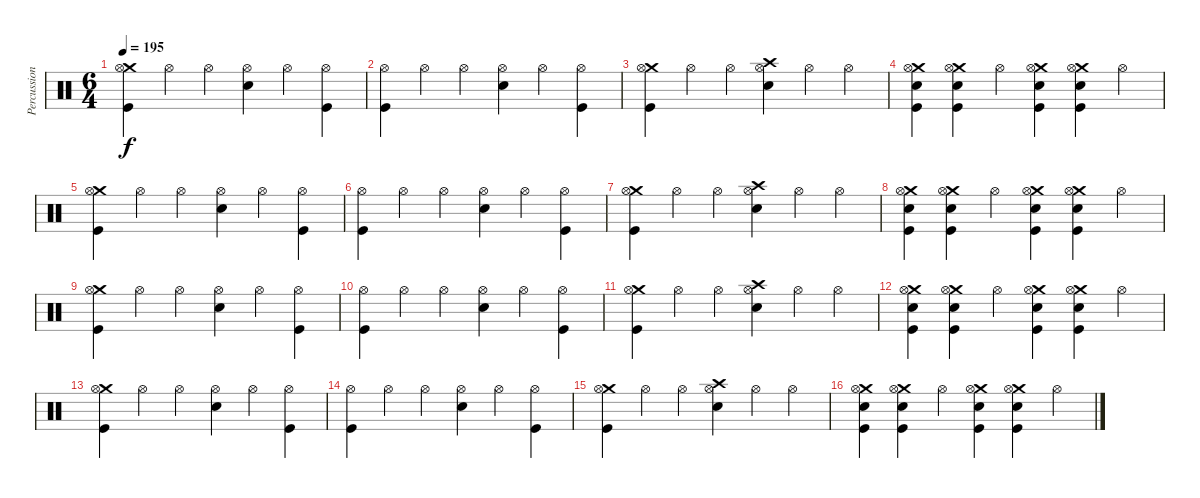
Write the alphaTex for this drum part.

\track ("Percussion" "Percussion") {instrument percussion}
\staff {score}
\articulation defaults
\ts (6 4)
\tempo 195
\clef neutral
\ks c
("Crash medium (hit)" "Hi-Hat (open)" "Kick (hit)").4{dy f} "Hi-Hat (open)".4 "Hi-Hat (open)".4 ("Hi-Hat (open)" "Electric Snare (hit)").4 "Hi-Hat (open)".4 ("Hi-Hat (open)" "Kick (hit)").4 |
("Hi-Hat (open)" "Kick (hit)").4 "Hi-Hat (open)".4 "Hi-Hat (open)".4 ("Hi-Hat (open)" "Electric Snare (hit)").4 "Hi-Hat (open)".4 ("Hi-Hat (open)" "Kick (hit)").4 |
("Crash medium (hit)" "Hi-Hat (open)" "Kick (hit)").4 "Hi-Hat (open)".4 "Hi-Hat (open)".4 ("Crash high (hit)" "Hi-Hat (open)" "Electric Snare (hit)").4 "Hi-Hat (open)".4 "Hi-Hat (open)".4 |
("Crash medium (hit)" "Hi-Hat (open)" "Electric Snare (hit)" "Kick (hit)").4 ("Crash medium (hit)" "Hi-Hat (open)" "Electric Snare (hit)" "Kick (hit)").4 "Hi-Hat (open)".4 ("Crash medium (hit)" "Hi-Hat (open)" "Electric Snare (hit)" "Kick (hit)").4 ("Crash medium (hit)" "Hi-Hat (open)" "Electric Snare (hit)" "Kick (hit)").4 "Hi-Hat (open)".4 |
("Crash medium (hit)" "Hi-Hat (open)" "Kick (hit)").4 "Hi-Hat (open)".4 "Hi-Hat (open)".4 ("Hi-Hat (open)" "Electric Snare (hit)").4 "Hi-Hat (open)".4 ("Hi-Hat (open)" "Kick (hit)").4 |
("Hi-Hat (open)" "Kick (hit)").4 "Hi-Hat (open)".4 "Hi-Hat (open)".4 ("Hi-Hat (open)" "Electric Snare (hit)").4 "Hi-Hat (open)".4 ("Hi-Hat (open)" "Kick (hit)").4 |
("Crash medium (hit)" "Hi-Hat (open)" "Kick (hit)").4 "Hi-Hat (open)".4 "Hi-Hat (open)".4 ("Crash high (hit)" "Hi-Hat (open)" "Electric Snare (hit)").4 "Hi-Hat (open)".4 "Hi-Hat (open)".4 |
("Crash medium (hit)" "Hi-Hat (open)" "Electric Snare (hit)" "Kick (hit)").4 ("Crash medium (hit)" "Hi-Hat (open)" "Electric Snare (hit)" "Kick (hit)").4 "Hi-Hat (open)".4 ("Crash medium (hit)" "Hi-Hat (open)" "Electric Snare (hit)" "Kick (hit)").4 ("Crash medium (hit)" "Hi-Hat (open)" "Electric Snare (hit)" "Kick (hit)").4 "Hi-Hat (open)".4 |
("Crash medium (hit)" "Hi-Hat (open)" "Kick (hit)").4 "Hi-Hat (open)".4 "Hi-Hat (open)".4 ("Hi-Hat (open)" "Electric Snare (hit)").4 "Hi-Hat (open)".4 ("Hi-Hat (open)" "Kick (hit)").4 |
("Hi-Hat (open)" "Kick (hit)").4 "Hi-Hat (open)".4 "Hi-Hat (open)".4 ("Hi-Hat (open)" "Electric Snare (hit)").4 "Hi-Hat (open)".4 ("Hi-Hat (open)" "Kick (hit)").4 |
("Crash medium (hit)" "Hi-Hat (open)" "Kick (hit)").4 "Hi-Hat (open)".4 "Hi-Hat (open)".4 ("Crash high (hit)" "Hi-Hat (open)" "Electric Snare (hit)").4 "Hi-Hat (open)".4 "Hi-Hat (open)".4 |
("Crash medium (hit)" "Hi-Hat (open)" "Electric Snare (hit)" "Kick (hit)").4 ("Crash medium (hit)" "Hi-Hat (open)" "Electric Snare (hit)" "Kick (hit)").4 "Hi-Hat (open)".4 ("Crash medium (hit)" "Hi-Hat (open)" "Electric Snare (hit)" "Kick (hit)").4 ("Crash medium (hit)" "Hi-Hat (open)" "Electric Snare (hit)" "Kick (hit)").4 "Hi-Hat (open)".4 |
("Crash medium (hit)" "Hi-Hat (open)" "Kick (hit)").4 "Hi-Hat (open)".4 "Hi-Hat (open)".4 ("Hi-Hat (open)" "Electric Snare (hit)").4 "Hi-Hat (open)".4 ("Hi-Hat (open)" "Kick (hit)").4 |
("Hi-Hat (open)" "Kick (hit)").4 "Hi-Hat (open)".4 "Hi-Hat (open)".4 ("Hi-Hat (open)" "Electric Snare (hit)").4 "Hi-Hat (open)".4 ("Hi-Hat (open)" "Kick (hit)").4 |
("Crash medium (hit)" "Hi-Hat (open)" "Kick (hit)").4 "Hi-Hat (open)".4 "Hi-Hat (open)".4 ("Crash high (hit)" "Hi-Hat (open)" "Electric Snare (hit)").4 "Hi-Hat (open)".4 "Hi-Hat (open)".4 |
("Crash medium (hit)" "Hi-Hat (open)" "Electric Snare (hit)" "Kick (hit)").4 ("Crash medium (hit)" "Hi-Hat (open)" "Electric Snare (hit)" "Kick (hit)").4 "Hi-Hat (open)".4 ("Crash medium (hit)" "Hi-Hat (open)" "Electric Snare (hit)" "Kick (hit)").4 ("Crash medium (hit)" "Hi-Hat (open)" "Electric Snare (hit)" "Kick (hit)").4 "Hi-Hat (open)".4
